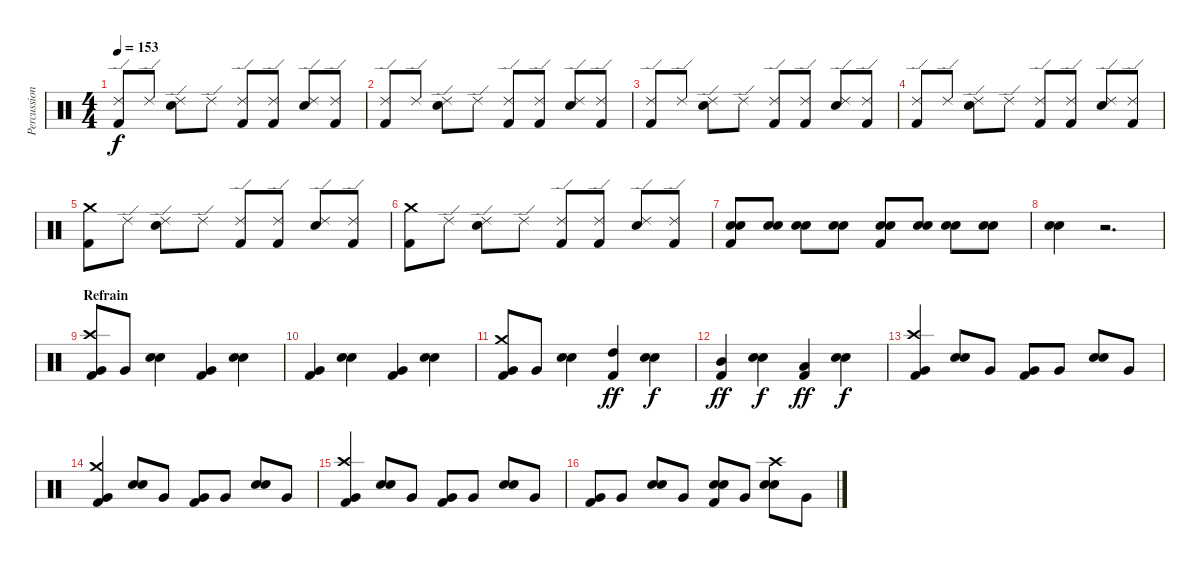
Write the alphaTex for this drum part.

\track ("Percussion" "Percussion") {instrument percussion}
\staff {score}
\articulation defaults
\ts (4 4)
\tempo 153
\clef neutral
\ks c
("Ride (edge) 2" "Kick (hit) 2").8{dy f} "Ride (edge) 2".8 ("Ride (edge) 2" "Electric Snare (hit)").8 "Ride (edge) 2".8 ("Ride (edge) 2" "Kick (hit) 2").8 ("Ride (edge) 2" "Kick (hit) 2").8 ("Ride (edge) 2" "Electric Snare (hit)").8 ("Ride (edge) 2" "Kick (hit) 2").8 |
("Ride (edge) 2" "Kick (hit) 2").8 "Ride (edge) 2".8 ("Ride (edge) 2" "Electric Snare (hit)").8 "Ride (edge) 2".8 ("Ride (edge) 2" "Kick (hit) 2").8 ("Ride (edge) 2" "Kick (hit) 2").8 ("Ride (edge) 2" "Electric Snare (hit)").8 ("Ride (edge) 2" "Kick (hit) 2").8 |
("Ride (edge) 2" "Kick (hit) 2").8 "Ride (edge) 2".8 ("Ride (edge) 2" "Electric Snare (hit)").8 "Ride (edge) 2".8 ("Ride (edge) 2" "Kick (hit) 2").8 ("Ride (edge) 2" "Kick (hit) 2").8 ("Ride (edge) 2" "Electric Snare (hit)").8 ("Ride (edge) 2" "Kick (hit) 2").8 |
("Ride (edge) 2" "Kick (hit) 2").8 "Ride (edge) 2".8 ("Ride (edge) 2" "Electric Snare (hit)").8 "Ride (edge) 2".8 ("Ride (edge) 2" "Kick (hit) 2").8 ("Ride (edge) 2" "Kick (hit) 2").8 ("Ride (edge) 2" "Electric Snare (hit)").8 ("Ride (edge) 2" "Kick (hit) 2").8 |
("Crash medium (hit)" "Kick (hit) 2").8 "Ride (edge) 2".8 ("Ride (edge) 2" "Electric Snare (hit)").8 "Ride (edge) 2".8 ("Ride (edge) 2" "Kick (hit) 2").8 ("Ride (edge) 2" "Kick (hit) 2").8 ("Ride (edge) 2" "Electric Snare (hit)").8 ("Ride (edge) 2" "Kick (hit) 2").8 |
("Crash medium (hit)" "Kick (hit) 2").8 "Ride (edge) 2".8 ("Ride (edge) 2" "Electric Snare (hit)").8 "Ride (edge) 2".8 ("Ride (edge) 2" "Kick (hit) 2").8 ("Ride (edge) 2" "Kick (hit) 2").8 ("Ride (edge) 2" "Electric Snare (hit)").8 ("Ride (edge) 2" "Kick (hit) 2").8 |
("Snare (hit) 2" "Electric Snare (hit)" "Kick (hit) 2").8 ("Snare (hit) 2" "Electric Snare (hit)").8 ("Snare (hit) 2" "Electric Snare (hit)").8 ("Snare (hit) 2" "Electric Snare (hit)").8 ("Snare (hit) 2" "Electric Snare (hit)" "Kick (hit) 2").8 ("Snare (hit) 2" "Electric Snare (hit)").8 ("Snare (hit) 2" "Electric Snare (hit)").8 ("Snare (hit) 2" "Electric Snare (hit)").8 |
("Electric Snare (hit)" "Electric Snare (hit)").4 r.2{d} |
\section ("" "Refrain")
("Crash high (hit)" "Very Low Tom (hit)" "Kick (hit) 2").8 "Very Low Tom (hit)".8 ("Electric Snare (hit)" "Snare (hit) 2").4 ("Very Low Tom (hit)" "Kick (hit) 2").4 ("Electric Snare (hit)" "Snare (hit) 2").4 |
("Very Low Tom (hit)" "Kick (hit) 2").4 ("Electric Snare (hit)" "Snare (hit) 2").4 ("Very Low Tom (hit)" "Kick (hit) 2").4 ("Electric Snare (hit)" "Snare (hit) 2").4 |
("Crash medium (hit)" "Very Low Tom (hit)" "Kick (hit) 2").8 "Very Low Tom (hit)".8 ("Electric Snare (hit)" "Snare (hit) 2").4 ("High Tom (hit)" "Kick (hit) 2").4{dy ff} ("Electric Snare (hit)" "Snare (hit) 2").4{dy f} |
("Mid Tom (hit)" "Kick (hit) 2").4{dy ff} ("Electric Snare (hit)" "Snare (hit) 2").4{dy f} ("Low Tom (hit)" "Kick (hit) 2").4{dy ff} ("Electric Snare (hit)" "Snare (hit) 2").4{dy f} |
("Crash high (hit)" "Very Low Tom (hit)" "Kick (hit) 2").4 ("Electric Snare (hit)" "Snare (hit) 2").8 "Very Low Tom (hit)".8 ("Very Low Tom (hit)" "Kick (hit) 2").8 "Very Low Tom (hit)".8 ("Electric Snare (hit)" "Snare (hit) 2").8 "Very Low Tom (hit)".8 |
("Crash medium (hit)" "Very Low Tom (hit)" "Kick (hit) 2").4 ("Electric Snare (hit)" "Snare (hit) 2").8 "Very Low Tom (hit)".8 ("Very Low Tom (hit)" "Kick (hit) 2").8 "Very Low Tom (hit)".8 ("Electric Snare (hit)" "Snare (hit) 2").8 "Very Low Tom (hit)".8 |
("Crash high (hit)" "Very Low Tom (hit)" "Kick (hit) 2").4 ("Electric Snare (hit)" "Snare (hit) 2").8 "Very Low Tom (hit)".8 ("Very Low Tom (hit)" "Kick (hit) 2").8 "Very Low Tom (hit)".8 ("Electric Snare (hit)" "Snare (hit) 2").8 "Very Low Tom (hit)".8 |
("Very Low Tom (hit)" "Kick (hit) 2").8 "Very Low Tom (hit)".8 ("Electric Snare (hit)" "Snare (hit) 2").8 "Very Low Tom (hit)".8 ("Electric Snare (hit)" "Snare (hit) 2" "Kick (hit) 2").8 "Very Low Tom (hit)".8 ("Crash high (hit)" "Electric Snare (hit)" "Snare (hit) 2").8 "Very Low Tom (hit)".8
